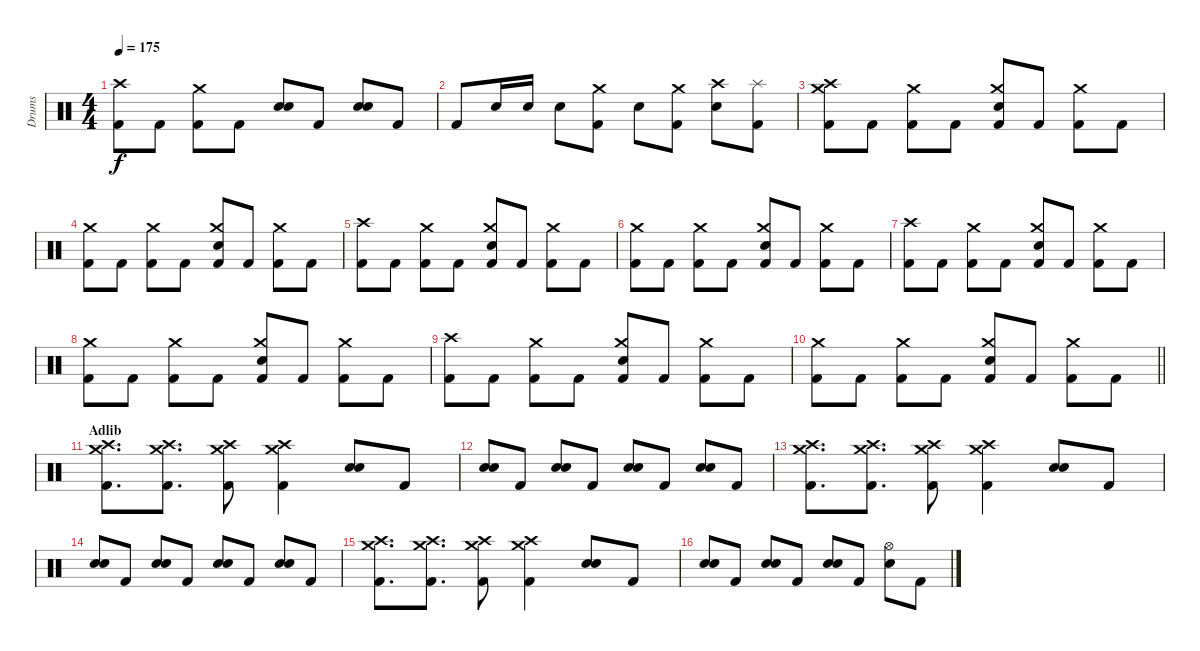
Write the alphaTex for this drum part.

\track ("Drums" "Drums") {instrument percussion}
\staff {score}
\articulation defaults
\ts (4 4)
\tempo 175
\clef neutral
\ks c
("Crash high (hit)" "Kick (hit) 2").8{dy f} "Kick (hit) 2".8 ("Crash medium (hit)" "Kick (hit) 2").8 "Kick (hit) 2".8 ("Electric Snare (hit)" "Electric Snare (hit)").8 "Kick (hit) 2".8 ("Electric Snare (hit)" "Electric Snare (hit)").8 "Kick (hit) 2".8 |
"Kick (hit) 2".8 "Electric Snare (hit)".16 "Electric Snare (hit)".16 "Electric Snare (hit)".8 ("Crash medium (hit)" "Kick (hit) 2").8 "Electric Snare (hit)".8 ("Crash medium (hit)" "Kick (hit) 2").8 ("Crash high (hit)" "Electric Snare (hit)").8 ("Splash (hit)" "Kick (hit) 2").8 |
("Crash medium (hit)" "Crash high (hit)" "Kick (hit) 2").8 "Kick (hit) 2".8 ("Crash medium (hit)" "Kick (hit) 2").8 "Kick (hit) 2".8 ("Crash medium (hit)" "Electric Snare (hit)" "Kick (hit) 2").8 "Kick (hit) 2".8 ("Crash medium (hit)" "Kick (hit) 2").8 "Kick (hit) 2".8 |
("Crash medium (hit)" "Kick (hit) 2").8 "Kick (hit) 2".8 ("Crash medium (hit)" "Kick (hit) 2").8 "Kick (hit) 2".8 ("Crash medium (hit)" "Electric Snare (hit)" "Kick (hit) 2").8 "Kick (hit) 2".8 ("Crash medium (hit)" "Kick (hit) 2").8 "Kick (hit) 2".8 |
("Crash high (hit)" "Kick (hit) 2").8 "Kick (hit) 2".8 ("Crash medium (hit)" "Kick (hit) 2").8 "Kick (hit) 2".8 ("Crash medium (hit)" "Electric Snare (hit)" "Kick (hit) 2").8 "Kick (hit) 2".8 ("Crash medium (hit)" "Kick (hit) 2").8 "Kick (hit) 2".8 |
("Crash medium (hit)" "Kick (hit) 2").8 "Kick (hit) 2".8 ("Crash medium (hit)" "Kick (hit) 2").8 "Kick (hit) 2".8 ("Crash medium (hit)" "Electric Snare (hit)" "Kick (hit) 2").8 "Kick (hit) 2".8 ("Crash medium (hit)" "Kick (hit) 2").8 "Kick (hit) 2".8 |
("Crash high (hit)" "Kick (hit) 2").8 "Kick (hit) 2".8 ("Crash medium (hit)" "Kick (hit) 2").8 "Kick (hit) 2".8 ("Crash medium (hit)" "Electric Snare (hit)" "Kick (hit) 2").8 "Kick (hit) 2".8 ("Crash medium (hit)" "Kick (hit) 2").8 "Kick (hit) 2".8 |
("Crash medium (hit)" "Kick (hit) 2").8 "Kick (hit) 2".8 ("Crash medium (hit)" "Kick (hit) 2").8 "Kick (hit) 2".8 ("Crash medium (hit)" "Electric Snare (hit)" "Kick (hit) 2").8 "Kick (hit) 2".8 ("Crash medium (hit)" "Kick (hit) 2").8 "Kick (hit) 2".8 |
("Crash high (hit)" "Kick (hit) 2").8 "Kick (hit) 2".8 ("Crash medium (hit)" "Kick (hit) 2").8 "Kick (hit) 2".8 ("Crash medium (hit)" "Electric Snare (hit)" "Kick (hit) 2").8 "Kick (hit) 2".8 ("Crash medium (hit)" "Kick (hit) 2").8 "Kick (hit) 2".8 |
\barLineRight lightlight
("Crash medium (hit)" "Kick (hit) 2").8 "Kick (hit) 2".8 ("Crash medium (hit)" "Kick (hit) 2").8 "Kick (hit) 2".8 ("Crash medium (hit)" "Electric Snare (hit)" "Kick (hit) 2").8 "Kick (hit) 2".8 ("Crash medium (hit)" "Kick (hit) 2").8 "Kick (hit) 2".8 |
\section ("" "Adlib")
("Crash medium (hit)" "Crash high (hit)" "Kick (hit) 2").8{d} ("Crash medium (hit)" "Crash high (hit)" "Kick (hit) 2").8{d} ("Crash medium (hit)" "Crash high (hit)" "Kick (hit) 2").8 ("Crash medium (hit)" "Crash high (hit)" "Kick (hit) 2").4 ("Electric Snare (hit)" "Electric Snare (hit)").8 "Kick (hit) 2".8 |
("Electric Snare (hit)" "Electric Snare (hit)").8 "Kick (hit) 2".8 ("Electric Snare (hit)" "Electric Snare (hit)").8 "Kick (hit) 2".8 ("Electric Snare (hit)" "Electric Snare (hit)").8 "Kick (hit) 2".8 ("Electric Snare (hit)" "Electric Snare (hit)").8 "Kick (hit) 2".8 |
("Crash medium (hit)" "Crash high (hit)" "Kick (hit) 2").8{d} ("Crash medium (hit)" "Crash high (hit)" "Kick (hit) 2").8{d} ("Crash medium (hit)" "Crash high (hit)" "Kick (hit) 2").8 ("Crash medium (hit)" "Crash high (hit)" "Kick (hit) 2").4 ("Electric Snare (hit)" "Electric Snare (hit)").8 "Kick (hit) 2".8 |
("Electric Snare (hit)" "Electric Snare (hit)").8 "Kick (hit) 2".8 ("Electric Snare (hit)" "Electric Snare (hit)").8 "Kick (hit) 2".8 ("Electric Snare (hit)" "Electric Snare (hit)").8 "Kick (hit) 2".8 ("Electric Snare (hit)" "Electric Snare (hit)").8 "Kick (hit) 2".8 |
("Crash medium (hit)" "Crash high (hit)" "Kick (hit) 2").8{d} ("Crash medium (hit)" "Crash high (hit)" "Kick (hit) 2").8{d} ("Crash medium (hit)" "Crash high (hit)" "Kick (hit) 2").8 ("Crash medium (hit)" "Crash high (hit)" "Kick (hit) 2").4 ("Electric Snare (hit)" "Electric Snare (hit)").8 "Kick (hit) 2".8 |
("Electric Snare (hit)" "Electric Snare (hit)").8 "Kick (hit) 2".8 ("Electric Snare (hit)" "Electric Snare (hit)").8 "Kick (hit) 2".8 ("Electric Snare (hit)" "Electric Snare (hit)").8 "Kick (hit) 2".8 ("Hi-Hat (open)" "Electric Snare (hit)").8 "Kick (hit) 2".8
